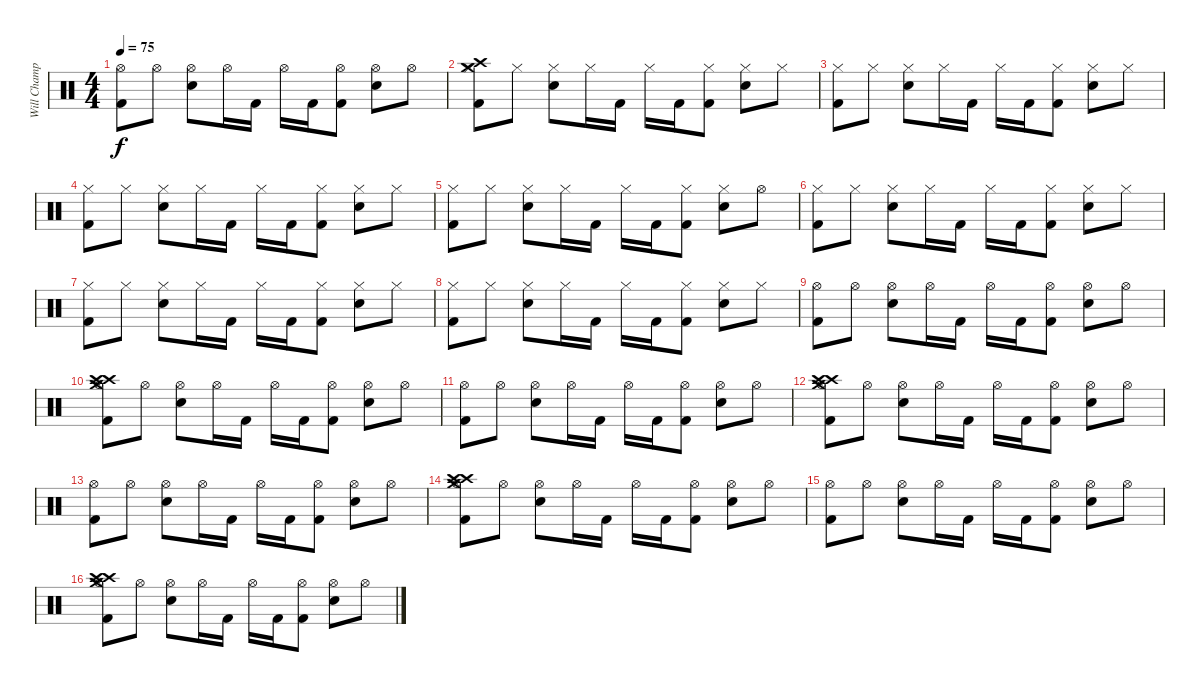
\track ("Will Champion(Drums)" "Will Champ") {instrument percussion}
\staff {score}
\articulation defaults
\ts (4 4)
\tempo 75
\clef neutral
\ks c
("Hi-Hat (open)" "Kick (hit) 2").8{dy f} "Hi-Hat (open)".8 ("Hi-Hat (open)" "Electric Snare (hit)").8 "Hi-Hat (open)".16 "Kick (hit) 2".16 "Hi-Hat (open)".16 "Kick (hit) 2".16 ("Hi-Hat (open)" "Kick (hit) 2").8 ("Hi-Hat (open)" "Electric Snare (hit)").8 "Hi-Hat (open)".8 |
("Hi-Hat (closed)" "Crash high (hit)" "Crash medium (hit)" "Kick (hit) 2").8 "Hi-Hat (closed)".8 ("Hi-Hat (closed)" "Electric Snare (hit)").8 "Hi-Hat (closed)".16 "Kick (hit) 2".16 "Hi-Hat (closed)".16 "Kick (hit) 2".16 ("Hi-Hat (closed)" "Kick (hit) 2").8 ("Hi-Hat (closed)" "Electric Snare (hit)").8 "Hi-Hat (closed)".8 |
("Hi-Hat (closed)" "Kick (hit) 2").8 "Hi-Hat (closed)".8 ("Hi-Hat (closed)" "Electric Snare (hit)").8 "Hi-Hat (closed)".16 "Kick (hit) 2".16 "Hi-Hat (closed)".16 "Kick (hit) 2".16 ("Hi-Hat (closed)" "Kick (hit) 2").8 ("Hi-Hat (closed)" "Electric Snare (hit)").8 "Hi-Hat (closed)".8 |
("Hi-Hat (closed)" "Kick (hit) 2").8 "Hi-Hat (closed)".8 ("Hi-Hat (closed)" "Electric Snare (hit)").8 "Hi-Hat (closed)".16 "Kick (hit) 2".16 "Hi-Hat (closed)".16 "Kick (hit) 2".16 ("Hi-Hat (closed)" "Kick (hit) 2").8 ("Hi-Hat (closed)" "Electric Snare (hit)").8 "Hi-Hat (closed)".8 |
("Hi-Hat (closed)" "Kick (hit) 2").8 "Hi-Hat (closed)".8 ("Hi-Hat (closed)" "Electric Snare (hit)").8 "Hi-Hat (closed)".16 "Kick (hit) 2".16 "Hi-Hat (closed)".16 "Kick (hit) 2".16 ("Hi-Hat (closed)" "Kick (hit) 2").8 ("Hi-Hat (closed)" "Electric Snare (hit)").8 "Hi-Hat (open)".8 |
("Hi-Hat (closed)" "Kick (hit) 2").8 "Hi-Hat (closed)".8 ("Hi-Hat (closed)" "Electric Snare (hit)").8 "Hi-Hat (closed)".16 "Kick (hit) 2".16 "Hi-Hat (closed)".16 "Kick (hit) 2".16 ("Hi-Hat (closed)" "Kick (hit) 2").8 ("Hi-Hat (closed)" "Electric Snare (hit)").8 "Hi-Hat (closed)".8 |
("Hi-Hat (closed)" "Kick (hit) 2").8 "Hi-Hat (closed)".8 ("Hi-Hat (closed)" "Electric Snare (hit)").8 "Hi-Hat (closed)".16 "Kick (hit) 2".16 "Hi-Hat (closed)".16 "Kick (hit) 2".16 ("Hi-Hat (closed)" "Kick (hit) 2").8 ("Hi-Hat (closed)" "Electric Snare (hit)").8 "Hi-Hat (closed)".8 |
("Hi-Hat (closed)" "Kick (hit) 2").8 "Hi-Hat (closed)".8 ("Hi-Hat (closed)" "Electric Snare (hit)").8 "Hi-Hat (closed)".16 "Kick (hit) 2".16 "Hi-Hat (closed)".16 "Kick (hit) 2".16 ("Hi-Hat (closed)" "Kick (hit) 2").8 ("Hi-Hat (closed)" "Electric Snare (hit)").8 "Hi-Hat (closed)".8 |
("Hi-Hat (open)" "Kick (hit) 2").8 "Hi-Hat (open)".8 ("Hi-Hat (open)" "Electric Snare (hit)").8 "Hi-Hat (open)".16 "Kick (hit) 2".16 "Hi-Hat (open)".16 "Kick (hit) 2".16 ("Hi-Hat (open)" "Kick (hit) 2").8 ("Hi-Hat (open)" "Electric Snare (hit)").8 "Hi-Hat (open)".8 |
("Crash high (hit)" "Crash medium (hit)" "Crash high (hit)" "Hi-Hat (open)" "Kick (hit) 2").8 "Hi-Hat (open)".8 ("Hi-Hat (open)" "Electric Snare (hit)").8 "Hi-Hat (open)".16 "Kick (hit) 2".16 "Hi-Hat (open)".16 "Kick (hit) 2".16 ("Hi-Hat (open)" "Kick (hit) 2").8 ("Hi-Hat (open)" "Electric Snare (hit)").8 "Hi-Hat (open)".8 |
("Hi-Hat (open)" "Kick (hit) 2").8 "Hi-Hat (open)".8 ("Hi-Hat (open)" "Electric Snare (hit)").8 "Hi-Hat (open)".16 "Kick (hit) 2".16 "Hi-Hat (open)".16 "Kick (hit) 2".16 ("Hi-Hat (open)" "Kick (hit) 2").8 ("Hi-Hat (open)" "Electric Snare (hit)").8 "Hi-Hat (open)".8 |
("Crash high (hit)" "Crash medium (hit)" "Crash high (hit)" "Hi-Hat (open)" "Kick (hit) 2").8 "Hi-Hat (open)".8 ("Hi-Hat (open)" "Electric Snare (hit)").8 "Hi-Hat (open)".16 "Kick (hit) 2".16 "Hi-Hat (open)".16 "Kick (hit) 2".16 ("Hi-Hat (open)" "Kick (hit) 2").8 ("Hi-Hat (open)" "Electric Snare (hit)").8 "Hi-Hat (open)".8 |
("Hi-Hat (open)" "Kick (hit) 2").8 "Hi-Hat (open)".8 ("Hi-Hat (open)" "Electric Snare (hit)").8 "Hi-Hat (open)".16 "Kick (hit) 2".16 "Hi-Hat (open)".16 "Kick (hit) 2".16 ("Hi-Hat (open)" "Kick (hit) 2").8 ("Hi-Hat (open)" "Electric Snare (hit)").8 "Hi-Hat (open)".8 |
("Crash high (hit)" "Crash medium (hit)" "Crash high (hit)" "Hi-Hat (open)" "Kick (hit) 2").8 "Hi-Hat (open)".8 ("Hi-Hat (open)" "Electric Snare (hit)").8 "Hi-Hat (open)".16 "Kick (hit) 2".16 "Hi-Hat (open)".16 "Kick (hit) 2".16 ("Hi-Hat (open)" "Kick (hit) 2").8 ("Hi-Hat (open)" "Electric Snare (hit)").8 "Hi-Hat (open)".8 |
("Hi-Hat (open)" "Kick (hit) 2").8 "Hi-Hat (open)".8 ("Hi-Hat (open)" "Electric Snare (hit)").8 "Hi-Hat (open)".16 "Kick (hit) 2".16 "Hi-Hat (open)".16 "Kick (hit) 2".16 ("Hi-Hat (open)" "Kick (hit) 2").8 ("Hi-Hat (open)" "Electric Snare (hit)").8 "Hi-Hat (open)".8 |
("Crash high (hit)" "Crash medium (hit)" "Crash high (hit)" "Hi-Hat (open)" "Kick (hit) 2").8 "Hi-Hat (open)".8 ("Hi-Hat (open)" "Electric Snare (hit)").8 "Hi-Hat (open)".16 "Kick (hit) 2".16 "Hi-Hat (open)".16 "Kick (hit) 2".16 ("Hi-Hat (open)" "Kick (hit) 2").8 ("Hi-Hat (open)" "Electric Snare (hit)").8 "Hi-Hat (open)".8
